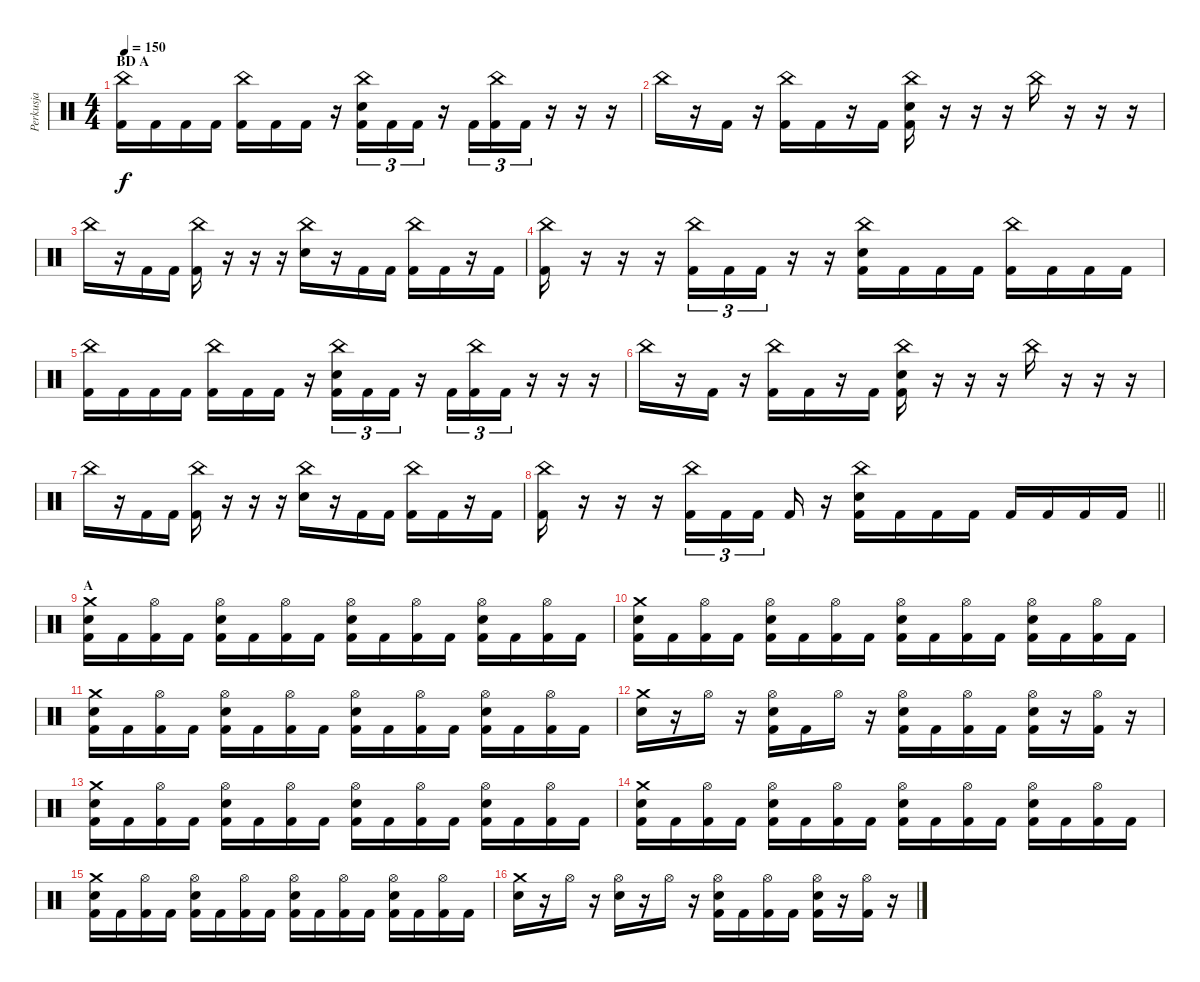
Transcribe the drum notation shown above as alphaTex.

\track ("Perkusja" "Perkusja") {instrument percussion}
\staff {score}
\articulation defaults
\ts (4 4)
\section ("" "BD A")
\tempo 150
\clef neutral
\ks c
("China (hit)" "Kick (hit) 2").16{dy f} "Kick (hit) 2".16 "Kick (hit) 2".16 "Kick (hit) 2".16 ("China (hit)" "Kick (hit) 2").16 "Kick (hit) 2".16 "Kick (hit) 2".16 r.16 ("China (hit)" "Snare (hit) 2" "Kick (hit) 2").16{tu (3 2)} "Kick (hit) 2".16{tu (3 2)} "Kick (hit) 2".16{tu (3 2)} r.16 "Kick (hit) 2".16{tu (3 2)} ("China (hit)" "Kick (hit) 2").16{tu (3 2)} "Kick (hit) 2".16{tu (3 2)} r.16 r.16 r.16 |
"China (hit)".16 r.16 "Kick (hit) 2".16 r.16 ("China (hit)" "Kick (hit) 2").16 "Kick (hit) 2".16 r.16 "Kick (hit) 2".16 ("China (hit)" "Snare (hit) 2" "Kick (hit) 2").16 r.16 r.16 r.16 "China (hit)".16 r.16 r.16 r.16 |
"China (hit)".16 r.16 "Kick (hit) 2".16 "Kick (hit) 2".16 ("China (hit)" "Kick (hit) 2").16 r.16 r.16 r.16 ("China (hit)" "Snare (hit) 2").16 r.16 "Kick (hit) 2".16 "Kick (hit) 2".16 ("China (hit)" "Kick (hit) 2").16 "Kick (hit) 2".16 r.16 "Kick (hit) 2".16 |
("China (hit)" "Kick (hit) 2").16 r.16 r.16 r.16 ("China (hit)" "Kick (hit) 2").16{tu (3 2)} "Kick (hit) 2".16{tu (3 2)} "Kick (hit) 2".16{tu (3 2)} r.16 r.16 ("China (hit)" "Snare (hit) 2" "Kick (hit) 2").16 "Kick (hit) 2".16 "Kick (hit) 2".16 "Kick (hit) 2".16 ("China (hit)" "Kick (hit) 2").16 "Kick (hit) 2".16 "Kick (hit) 2".16 "Kick (hit) 2".16 |
("China (hit)" "Kick (hit) 2").16 "Kick (hit) 2".16 "Kick (hit) 2".16 "Kick (hit) 2".16 ("China (hit)" "Kick (hit) 2").16 "Kick (hit) 2".16 "Kick (hit) 2".16 r.16 ("China (hit)" "Snare (hit) 2" "Kick (hit) 2").16{tu (3 2)} "Kick (hit) 2".16{tu (3 2)} "Kick (hit) 2".16{tu (3 2)} r.16 "Kick (hit) 2".16{tu (3 2)} ("China (hit)" "Kick (hit) 2").16{tu (3 2)} "Kick (hit) 2".16{tu (3 2)} r.16 r.16 r.16 |
"China (hit)".16 r.16 "Kick (hit) 2".16 r.16 ("China (hit)" "Kick (hit) 2").16 "Kick (hit) 2".16 r.16 "Kick (hit) 2".16 ("China (hit)" "Snare (hit) 2" "Kick (hit) 2").16 r.16 r.16 r.16 "China (hit)".16 r.16 r.16 r.16 |
"China (hit)".16 r.16 "Kick (hit) 2".16 "Kick (hit) 2".16 ("China (hit)" "Kick (hit) 2").16 r.16 r.16 r.16 ("China (hit)" "Snare (hit) 2").16 r.16 "Kick (hit) 2".16 "Kick (hit) 2".16 ("China (hit)" "Kick (hit) 2").16 "Kick (hit) 2".16 r.16 "Kick (hit) 2".16 |
\barLineRight lightlight
("China (hit)" "Kick (hit) 2").16 r.16 r.16 r.16 ("China (hit)" "Kick (hit) 2").16{tu (3 2)} "Kick (hit) 2".16{tu (3 2)} "Kick (hit) 2".16{tu (3 2) beam splitsecondary} "Kick (hit) 2".16 r.16 ("China (hit)" "Snare (hit) 2" "Kick (hit) 2").16 "Kick (hit) 2".16 "Kick (hit) 2".16 "Kick (hit) 2".16 "Kick (hit) 2".16 "Kick (hit) 2".16 "Kick (hit) 2".16 "Kick (hit) 2".16 |
\section ("" "A")
("Crash medium (hit)" "Snare (hit) 2" "Kick (hit) 2").16 "Kick (hit) 2".16 ("Hi-Hat (open)" "Kick (hit) 2").16 "Kick (hit) 2".16 ("Hi-Hat (open)" "Snare (hit) 2" "Kick (hit) 2").16 "Kick (hit) 2".16 ("Hi-Hat (open)" "Kick (hit) 2").16 "Kick (hit) 2".16 ("Hi-Hat (open)" "Snare (hit) 2" "Kick (hit) 2").16 "Kick (hit) 2".16 ("Hi-Hat (open)" "Kick (hit) 2").16 "Kick (hit) 2".16 ("Hi-Hat (open)" "Snare (hit) 2" "Kick (hit) 2").16 "Kick (hit) 2".16 ("Hi-Hat (open)" "Kick (hit) 2").16 "Kick (hit) 2".16 |
("Crash medium (hit)" "Snare (hit) 2" "Kick (hit) 2").16 "Kick (hit) 2".16 ("Hi-Hat (open)" "Kick (hit) 2").16 "Kick (hit) 2".16 ("Hi-Hat (open)" "Snare (hit) 2" "Kick (hit) 2").16 "Kick (hit) 2".16 ("Hi-Hat (open)" "Kick (hit) 2").16 "Kick (hit) 2".16 ("Hi-Hat (open)" "Snare (hit) 2" "Kick (hit) 2").16 "Kick (hit) 2".16 ("Hi-Hat (open)" "Kick (hit) 2").16 "Kick (hit) 2".16 ("Hi-Hat (open)" "Snare (hit) 2" "Kick (hit) 2").16 "Kick (hit) 2".16 ("Hi-Hat (open)" "Kick (hit) 2").16 "Kick (hit) 2".16 |
("Crash medium (hit)" "Snare (hit) 2" "Kick (hit) 2").16 "Kick (hit) 2".16 ("Hi-Hat (open)" "Kick (hit) 2").16 "Kick (hit) 2".16 ("Hi-Hat (open)" "Snare (hit) 2" "Kick (hit) 2").16 "Kick (hit) 2".16 ("Hi-Hat (open)" "Kick (hit) 2").16 "Kick (hit) 2".16 ("Hi-Hat (open)" "Snare (hit) 2" "Kick (hit) 2").16 "Kick (hit) 2".16 ("Hi-Hat (open)" "Kick (hit) 2").16 "Kick (hit) 2".16 ("Hi-Hat (open)" "Snare (hit) 2" "Kick (hit) 2").16 "Kick (hit) 2".16 ("Hi-Hat (open)" "Kick (hit) 2").16 "Kick (hit) 2".16 |
("Crash medium (hit)" "Snare (hit) 2").16 r.16 "Hi-Hat (open)".16 r.16 ("Hi-Hat (open)" "Snare (hit) 2" "Kick (hit) 2").16 "Kick (hit) 2".16 "Hi-Hat (open)".16 r.16 ("Hi-Hat (open)" "Snare (hit) 2" "Kick (hit) 2").16 "Kick (hit) 2".16 ("Hi-Hat (open)" "Kick (hit) 2").16 "Kick (hit) 2".16 ("Hi-Hat (open)" "Snare (hit) 2" "Kick (hit) 2").16 r.16 ("Hi-Hat (open)" "Kick (hit) 2").16 r.16 |
("Crash medium (hit)" "Snare (hit) 2" "Kick (hit) 2").16 "Kick (hit) 2".16 ("Hi-Hat (open)" "Kick (hit) 2").16 "Kick (hit) 2".16 ("Hi-Hat (open)" "Snare (hit) 2" "Kick (hit) 2").16 "Kick (hit) 2".16 ("Hi-Hat (open)" "Kick (hit) 2").16 "Kick (hit) 2".16 ("Hi-Hat (open)" "Snare (hit) 2" "Kick (hit) 2").16 "Kick (hit) 2".16 ("Hi-Hat (open)" "Kick (hit) 2").16 "Kick (hit) 2".16 ("Hi-Hat (open)" "Snare (hit) 2" "Kick (hit) 2").16 "Kick (hit) 2".16 ("Hi-Hat (open)" "Kick (hit) 2").16 "Kick (hit) 2".16 |
("Crash medium (hit)" "Snare (hit) 2" "Kick (hit) 2").16 "Kick (hit) 2".16 ("Hi-Hat (open)" "Kick (hit) 2").16 "Kick (hit) 2".16 ("Hi-Hat (open)" "Snare (hit) 2" "Kick (hit) 2").16 "Kick (hit) 2".16 ("Hi-Hat (open)" "Kick (hit) 2").16 "Kick (hit) 2".16 ("Hi-Hat (open)" "Snare (hit) 2" "Kick (hit) 2").16 "Kick (hit) 2".16 ("Hi-Hat (open)" "Kick (hit) 2").16 "Kick (hit) 2".16 ("Hi-Hat (open)" "Snare (hit) 2" "Kick (hit) 2").16 "Kick (hit) 2".16 ("Hi-Hat (open)" "Kick (hit) 2").16 "Kick (hit) 2".16 |
("Crash medium (hit)" "Snare (hit) 2" "Kick (hit) 2").16 "Kick (hit) 2".16 ("Hi-Hat (open)" "Kick (hit) 2").16 "Kick (hit) 2".16 ("Hi-Hat (open)" "Snare (hit) 2" "Kick (hit) 2").16 "Kick (hit) 2".16 ("Hi-Hat (open)" "Kick (hit) 2").16 "Kick (hit) 2".16 ("Hi-Hat (open)" "Snare (hit) 2" "Kick (hit) 2").16 "Kick (hit) 2".16 ("Hi-Hat (open)" "Kick (hit) 2").16 "Kick (hit) 2".16 ("Hi-Hat (open)" "Snare (hit) 2" "Kick (hit) 2").16 "Kick (hit) 2".16 ("Hi-Hat (open)" "Kick (hit) 2").16 "Kick (hit) 2".16 |
("Crash medium (hit)" "Snare (hit) 2").16 r.16 "Hi-Hat (open)".16 r.16 ("Hi-Hat (open)" "Snare (hit) 2").16 r.16 "Hi-Hat (open)".16 r.16 ("Hi-Hat (open)" "Snare (hit) 2" "Kick (hit) 2").16 "Kick (hit) 2".16 ("Hi-Hat (open)" "Kick (hit) 2").16 "Kick (hit) 2".16 ("Hi-Hat (open)" "Snare (hit) 2" "Kick (hit) 2").16 r.16 ("Hi-Hat (open)" "Kick (hit) 2").16 r.16
